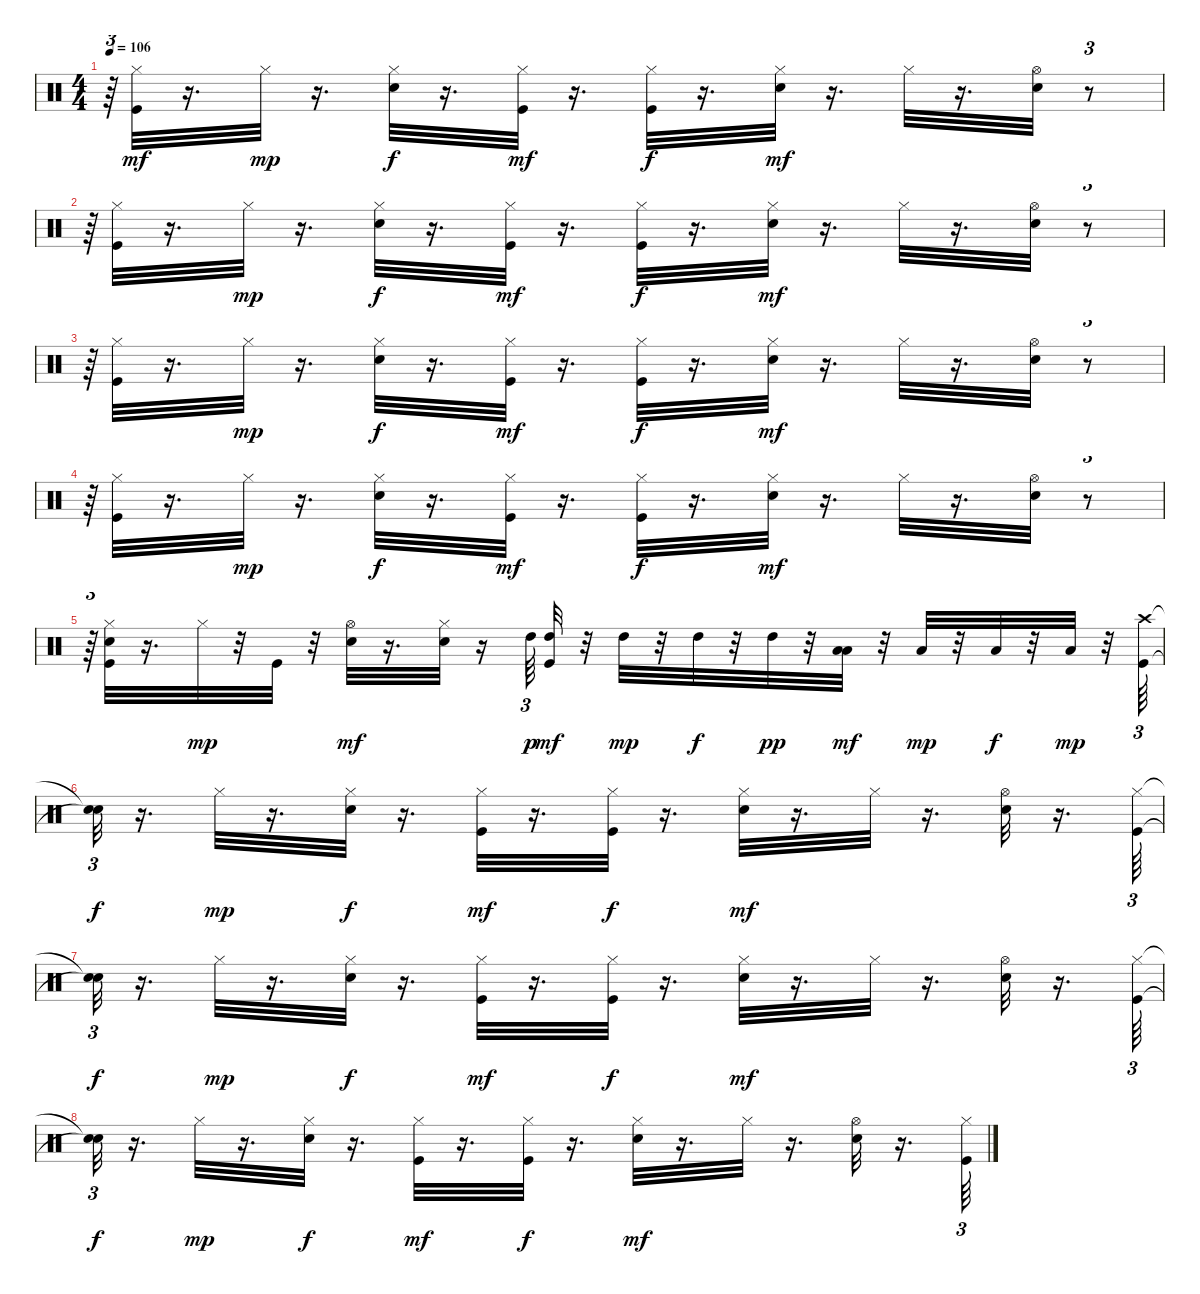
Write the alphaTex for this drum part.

\track "" {instrument percussion}
\staff {score}
\articulation defaults
\ts (4 4)
\tempo 106
\clef neutral
\ks c
r.64{tu (3 2) dy mf} ("Kick (hit)" "Hi-Hat (closed)").32 r.16{d} "Hi-Hat (closed)".32{dy mp} r.16{d} ("Snare (hit) 2" "Hi-Hat (closed)").32{dy f} r.16{d} ("Kick (hit)" "Hi-Hat (closed)").32{dy mf} r.16{d} ("Kick (hit)" "Hi-Hat (closed)").32{dy f} r.16{d} ("Snare (hit) 2" "Hi-Hat (closed)").32{dy mf} r.16{d} "Hi-Hat (closed)".32 r.16{d} ("Snare (hit) 2" "Hi-Hat (open)").32 r.8{tu (3 2)} |
r.64{tu (3 2)} ("Kick (hit)" "Hi-Hat (closed)").32 r.16{d} "Hi-Hat (closed)".32{dy mp} r.16{d} ("Snare (hit) 2" "Hi-Hat (closed)").32{dy f} r.16{d} ("Kick (hit)" "Hi-Hat (closed)").32{dy mf} r.16{d} ("Kick (hit)" "Hi-Hat (closed)").32{dy f} r.16{d} ("Snare (hit) 2" "Hi-Hat (closed)").32{dy mf} r.16{d} "Hi-Hat (closed)".32 r.16{d} ("Snare (hit) 2" "Hi-Hat (open)").32 r.8{tu (3 2)} |
r.64{tu (3 2)} ("Kick (hit)" "Hi-Hat (closed)").32 r.16{d} "Hi-Hat (closed)".32{dy mp} r.16{d} ("Snare (hit) 2" "Hi-Hat (closed)").32{dy f} r.16{d} ("Kick (hit)" "Hi-Hat (closed)").32{dy mf} r.16{d} ("Kick (hit)" "Hi-Hat (closed)").32{dy f} r.16{d} ("Snare (hit) 2" "Hi-Hat (closed)").32{dy mf} r.16{d} "Hi-Hat (closed)".32 r.16{d} ("Snare (hit) 2" "Hi-Hat (open)").32 r.8{tu (3 2)} |
r.64{tu (3 2)} ("Kick (hit)" "Hi-Hat (closed)").32 r.16{d} "Hi-Hat (closed)".32{dy mp} r.16{d} ("Snare (hit) 2" "Hi-Hat (closed)").32{dy f} r.16{d} ("Kick (hit)" "Hi-Hat (closed)").32{dy mf} r.16{d} ("Kick (hit)" "Hi-Hat (closed)").32{dy f} r.16{d} ("Snare (hit) 2" "Hi-Hat (closed)").32{dy mf} r.16{d} "Hi-Hat (closed)".32 r.16{d} ("Snare (hit) 2" "Hi-Hat (open)").32 r.8{tu (3 2)} |
r.64{tu (3 2)} ("Kick (hit)" "Snare (hit) 2" "Hi-Hat (closed)").32 r.16{d} "Hi-Hat (closed)".32{dy mp} r.32 "Kick (hit)".32 r.32 ("Snare (hit) 2" "Hi-Hat (open)").32{dy mf} r.16{d} ("Snare (hit) 2" "Hi-Hat (closed)").32 r.16 "High Tom (hit)".64{tu (3 2) dy p} ("Kick (hit)" "High Tom (hit)").32{dy mf} r.32 "High Tom (hit)".32{dy mp} r.32 "High Tom (hit)".32{dy f} r.32 "High Tom (hit)".32{dy pp} r.32 ("Low Tom (hit)" "Low Tom (hit)").32{dy mf} r.32 "Low Tom (hit)".32{dy mp} r.32 "Low Tom (hit)".32{dy f} r.32 "Low Tom (hit)".32{dy mp} r.32 ("Kick (hit)" "Crash high (hit)").64{tu (3 2)} |
("Snare (hit)"{t} "Snare (hit)"{t}).32{tu (3 2) dy f} r.16{d} "Hi-Hat (closed)".32{dy mp} r.16{d} ("Snare (hit) 2" "Hi-Hat (closed)").32{dy f} r.16{d} ("Kick (hit)" "Hi-Hat (closed)").32{dy mf} r.16{d} ("Kick (hit)" "Hi-Hat (closed)").32{dy f} r.16{d} ("Snare (hit) 2" "Hi-Hat (closed)").32{dy mf} r.16{d} "Hi-Hat (closed)".32 r.16{d} ("Snare (hit) 2" "Hi-Hat (open)").32 r.16{d} ("Kick (hit)" "Hi-Hat (closed)").64{tu (3 2)} |
("Snare (hit)"{t} "Snare (hit)"{t}).32{tu (3 2) dy f} r.16{d} "Hi-Hat (closed)".32{dy mp} r.16{d} ("Snare (hit) 2" "Hi-Hat (closed)").32{dy f} r.16{d} ("Kick (hit)" "Hi-Hat (closed)").32{dy mf} r.16{d} ("Kick (hit)" "Hi-Hat (closed)").32{dy f} r.16{d} ("Snare (hit) 2" "Hi-Hat (closed)").32{dy mf} r.16{d} "Hi-Hat (closed)".32 r.16{d} ("Snare (hit) 2" "Hi-Hat (open)").32 r.16{d} ("Kick (hit)" "Hi-Hat (closed)").64{tu (3 2)} |
("Snare (hit)"{t} "Snare (hit)"{t}).32{tu (3 2) dy f} r.16{d} "Hi-Hat (closed)".32{dy mp} r.16{d} ("Snare (hit) 2" "Hi-Hat (closed)").32{dy f} r.16{d} ("Kick (hit)" "Hi-Hat (closed)").32{dy mf} r.16{d} ("Kick (hit)" "Hi-Hat (closed)").32{dy f} r.16{d} ("Snare (hit) 2" "Hi-Hat (closed)").32{dy mf} r.16{d} "Hi-Hat (closed)".32 r.16{d} ("Snare (hit) 2" "Hi-Hat (open)").32 r.16{d} ("Kick (hit)" "Hi-Hat (closed)").64{tu (3 2)}
